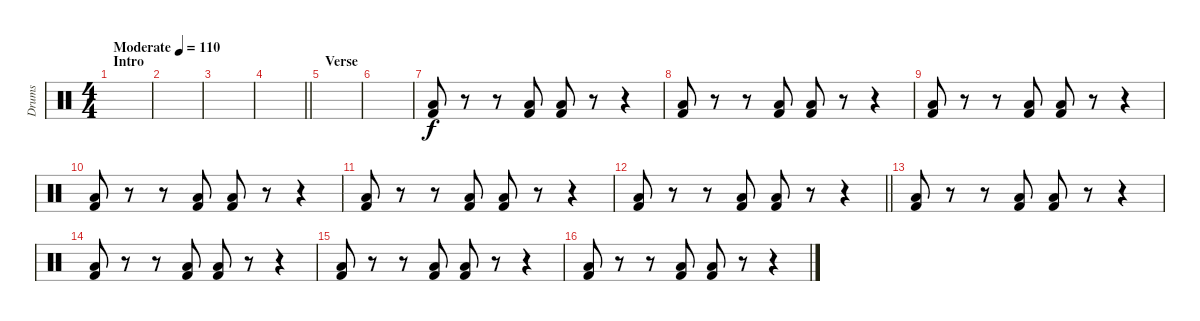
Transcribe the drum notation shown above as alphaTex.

\track ("Drums" "Drums") {instrument percussion}
\staff {score}
\articulation defaults
\ts (4 4)
\section ("" "Intro")
\tempo (110 "Moderate")
\clef neutral
\ks c
|
|
|
\barLineRight lightlight
|
\section ("" "Verse")
|
|
("Low Floor Tom (hit)" "Kick (hit) 2").8 r.8 r.8 ("Low Floor Tom (hit)" "Kick (hit) 2").8 ("Low Floor Tom (hit)" "Kick (hit) 2").8 r.8 r.4 |
("Low Floor Tom (hit)" "Kick (hit) 2").8 r.8 r.8 ("Low Floor Tom (hit)" "Kick (hit) 2").8 ("Low Floor Tom (hit)" "Kick (hit) 2").8 r.8 r.4 |
("Low Floor Tom (hit)" "Kick (hit) 2").8 r.8 r.8 ("Low Floor Tom (hit)" "Kick (hit) 2").8 ("Low Floor Tom (hit)" "Kick (hit) 2").8 r.8 r.4 |
("Low Floor Tom (hit)" "Kick (hit) 2").8 r.8 r.8 ("Low Floor Tom (hit)" "Kick (hit) 2").8 ("Low Floor Tom (hit)" "Kick (hit) 2").8 r.8 r.4 |
("Low Floor Tom (hit)" "Kick (hit) 2").8 r.8 r.8 ("Low Floor Tom (hit)" "Kick (hit) 2").8 ("Low Floor Tom (hit)" "Kick (hit) 2").8 r.8 r.4 |
\barLineRight lightlight
("Low Floor Tom (hit)" "Kick (hit) 2").8 r.8 r.8 ("Low Floor Tom (hit)" "Kick (hit) 2").8 ("Low Floor Tom (hit)" "Kick (hit) 2").8 r.8 r.4 |
("Low Floor Tom (hit)" "Kick (hit) 2").8 r.8 r.8 ("Low Floor Tom (hit)" "Kick (hit) 2").8 ("Low Floor Tom (hit)" "Kick (hit) 2").8 r.8 r.4 |
("Low Floor Tom (hit)" "Kick (hit) 2").8 r.8 r.8 ("Low Floor Tom (hit)" "Kick (hit) 2").8 ("Low Floor Tom (hit)" "Kick (hit) 2").8 r.8 r.4 |
("Low Floor Tom (hit)" "Kick (hit) 2").8 r.8 r.8 ("Low Floor Tom (hit)" "Kick (hit) 2").8 ("Low Floor Tom (hit)" "Kick (hit) 2").8 r.8 r.4 |
("Low Floor Tom (hit)" "Kick (hit) 2").8 r.8 r.8 ("Low Floor Tom (hit)" "Kick (hit) 2").8 ("Low Floor Tom (hit)" "Kick (hit) 2").8 r.8 r.4
